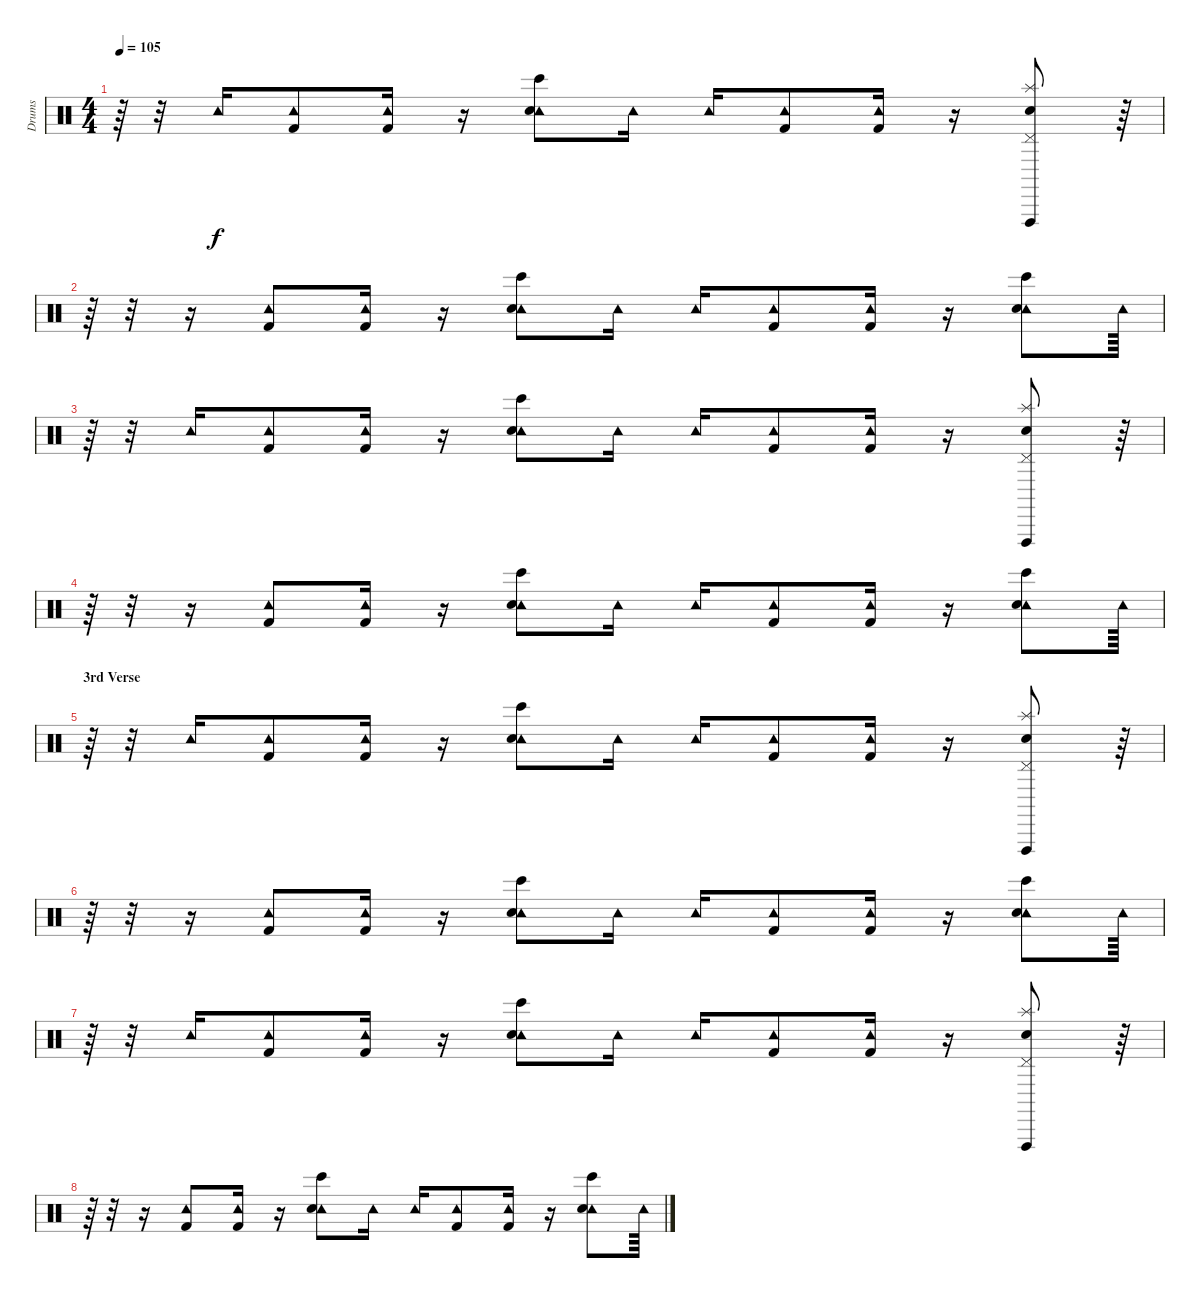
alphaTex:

\track ("Drums" "Drums") {instrument percussion}
\staff {score}
\articulation defaults
\ts (4 4)
\tempo 105
\clef neutral
\ks c
r.64{dy f} r.32 "Tambourine (hit)".16 ("Tambourine (hit)" "Kick (hit) 2").8 ("Tambourine (hit)" "Kick (hit) 2").16 r.16 ("Tambourine (hit)" "Electric Snare (hit)" "Bongo High (hit)").8 "Tambourine (hit)".16 "Tambourine (hit)".16 ("Tambourine (hit)" "Kick (hit) 2").8 ("Tambourine (hit)" "Kick (hit) 2").16 r.16 ("Splash (hit)" "Electric Snare (hit)" "Pedal Hi-Hat (hit)" "Vibraslap (hit)").8 r.64 |
r.64 r.32 r.16 ("Tambourine (hit)" "Kick (hit) 2").8 ("Tambourine (hit)" "Kick (hit) 2").16 r.16 ("Tambourine (hit)" "Electric Snare (hit)" "Bongo High (hit)").8 "Tambourine (hit)".16 "Tambourine (hit)".16 ("Tambourine (hit)" "Kick (hit) 2").8 ("Tambourine (hit)" "Kick (hit) 2").16 r.16 ("Tambourine (hit)" "Electric Snare (hit)" "Bongo High (hit)").8 "Tambourine (hit)".64 |
r.64 r.32 "Tambourine (hit)".16 ("Tambourine (hit)" "Kick (hit) 2").8 ("Tambourine (hit)" "Kick (hit) 2").16 r.16 ("Tambourine (hit)" "Electric Snare (hit)" "Bongo High (hit)").8 "Tambourine (hit)".16 "Tambourine (hit)".16 ("Tambourine (hit)" "Kick (hit) 2").8 ("Tambourine (hit)" "Kick (hit) 2").16 r.16 ("Splash (hit)" "Electric Snare (hit)" "Pedal Hi-Hat (hit)" "Vibraslap (hit)").8 r.64 |
r.64 r.32 r.16 ("Tambourine (hit)" "Kick (hit) 2").8 ("Tambourine (hit)" "Kick (hit) 2").16 r.16 ("Tambourine (hit)" "Electric Snare (hit)" "Bongo High (hit)").8 "Tambourine (hit)".16 "Tambourine (hit)".16 ("Tambourine (hit)" "Kick (hit) 2").8 ("Tambourine (hit)" "Kick (hit) 2").16 r.16 ("Tambourine (hit)" "Electric Snare (hit)" "Bongo High (hit)").8 "Tambourine (hit)".64 |
\section ("" "3rd Verse")
r.64 r.32 "Tambourine (hit)".16 ("Tambourine (hit)" "Kick (hit) 2").8 ("Tambourine (hit)" "Kick (hit) 2").16 r.16 ("Tambourine (hit)" "Electric Snare (hit)" "Bongo High (hit)").8 "Tambourine (hit)".16 "Tambourine (hit)".16 ("Tambourine (hit)" "Kick (hit) 2").8 ("Tambourine (hit)" "Kick (hit) 2").16 r.16 ("Splash (hit)" "Electric Snare (hit)" "Pedal Hi-Hat (hit)" "Vibraslap (hit)").8 r.64 |
r.64 r.32 r.16 ("Tambourine (hit)" "Kick (hit) 2").8 ("Tambourine (hit)" "Kick (hit) 2").16 r.16 ("Tambourine (hit)" "Electric Snare (hit)" "Bongo High (hit)").8 "Tambourine (hit)".16 "Tambourine (hit)".16 ("Tambourine (hit)" "Kick (hit) 2").8 ("Tambourine (hit)" "Kick (hit) 2").16 r.16 ("Tambourine (hit)" "Electric Snare (hit)" "Bongo High (hit)").8 "Tambourine (hit)".64 |
r.64 r.32 "Tambourine (hit)".16 ("Tambourine (hit)" "Kick (hit) 2").8 ("Tambourine (hit)" "Kick (hit) 2").16 r.16 ("Tambourine (hit)" "Electric Snare (hit)" "Bongo High (hit)").8 "Tambourine (hit)".16 "Tambourine (hit)".16 ("Tambourine (hit)" "Kick (hit) 2").8 ("Tambourine (hit)" "Kick (hit) 2").16 r.16 ("Splash (hit)" "Electric Snare (hit)" "Pedal Hi-Hat (hit)" "Vibraslap (hit)").8 r.64 |
r.64 r.32 r.16 ("Tambourine (hit)" "Kick (hit) 2").8 ("Tambourine (hit)" "Kick (hit) 2").16 r.16 ("Tambourine (hit)" "Electric Snare (hit)" "Bongo High (hit)").8 "Tambourine (hit)".16 "Tambourine (hit)".16 ("Tambourine (hit)" "Kick (hit) 2").8 ("Tambourine (hit)" "Kick (hit) 2").16 r.16 ("Tambourine (hit)" "Electric Snare (hit)" "Bongo High (hit)").8 "Tambourine (hit)".64
